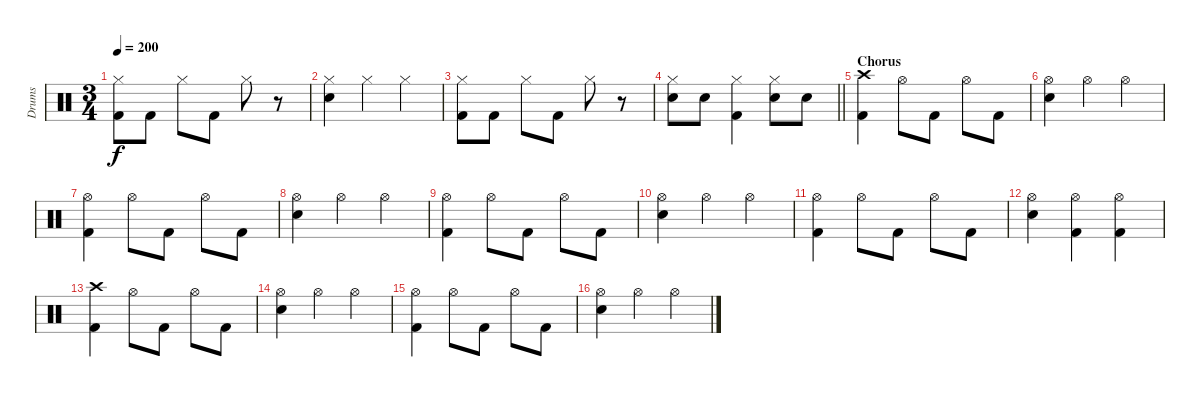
\track ("Drums" "Drums") {instrument percussion}
\staff {score}
\articulation defaults
\ts (3 4)
\tempo 200
\clef neutral
\ks c
("Hi-Hat (closed)" "Kick (hit) 2").8{dy f} "Kick (hit) 2".8 "Hi-Hat (closed)".8 "Kick (hit) 2".8 "Hi-Hat (closed)".8 r.8 |
("Hi-Hat (closed)" "Electric Snare (hit)").4 "Hi-Hat (closed)".4 "Hi-Hat (closed)".4 |
("Hi-Hat (closed)" "Kick (hit) 2").8 "Kick (hit) 2".8 "Hi-Hat (closed)".8 "Kick (hit) 2".8 "Hi-Hat (closed)".8 r.8 |
\barLineRight lightlight
("Hi-Hat (closed)" "Electric Snare (hit)").8 "Electric Snare (hit)".8 ("Hi-Hat (closed)" "Kick (hit) 2").4 ("Hi-Hat (closed)" "Electric Snare (hit)").8 "Electric Snare (hit)".8 |
\section ("" "Chorus")
("Crash high (hit)" "Kick (hit) 2").4 "Hi-Hat (open)".8 "Kick (hit) 2".8 "Hi-Hat (open)".8 "Kick (hit) 2".8 |
("Hi-Hat (open)" "Electric Snare (hit)").4 "Hi-Hat (open)".4 "Hi-Hat (open)".4 |
("Hi-Hat (open)" "Kick (hit) 2").4 "Hi-Hat (open)".8 "Kick (hit) 2".8 "Hi-Hat (open)".8 "Kick (hit) 2".8 |
("Hi-Hat (open)" "Electric Snare (hit)").4 "Hi-Hat (open)".4 "Hi-Hat (open)".4 |
("Hi-Hat (open)" "Kick (hit) 2").4 "Hi-Hat (open)".8 "Kick (hit) 2".8 "Hi-Hat (open)".8 "Kick (hit) 2".8 |
("Hi-Hat (open)" "Electric Snare (hit)").4 "Hi-Hat (open)".4 "Hi-Hat (open)".4 |
("Hi-Hat (open)" "Kick (hit) 2").4 "Hi-Hat (open)".8 "Kick (hit) 2".8 "Hi-Hat (open)".8 "Kick (hit) 2".8 |
("Hi-Hat (open)" "Electric Snare (hit)").4 ("Hi-Hat (open)" "Kick (hit) 2").4 ("Hi-Hat (open)" "Kick (hit) 2").4 |
("Crash high (hit)" "Kick (hit) 2").4 "Hi-Hat (open)".8 "Kick (hit) 2".8 "Hi-Hat (open)".8 "Kick (hit) 2".8 |
("Hi-Hat (open)" "Electric Snare (hit)").4 "Hi-Hat (open)".4 "Hi-Hat (open)".4 |
("Hi-Hat (open)" "Kick (hit) 2").4 "Hi-Hat (open)".8 "Kick (hit) 2".8 "Hi-Hat (open)".8 "Kick (hit) 2".8 |
("Hi-Hat (open)" "Electric Snare (hit)").4 "Hi-Hat (open)".4 "Hi-Hat (open)".4
